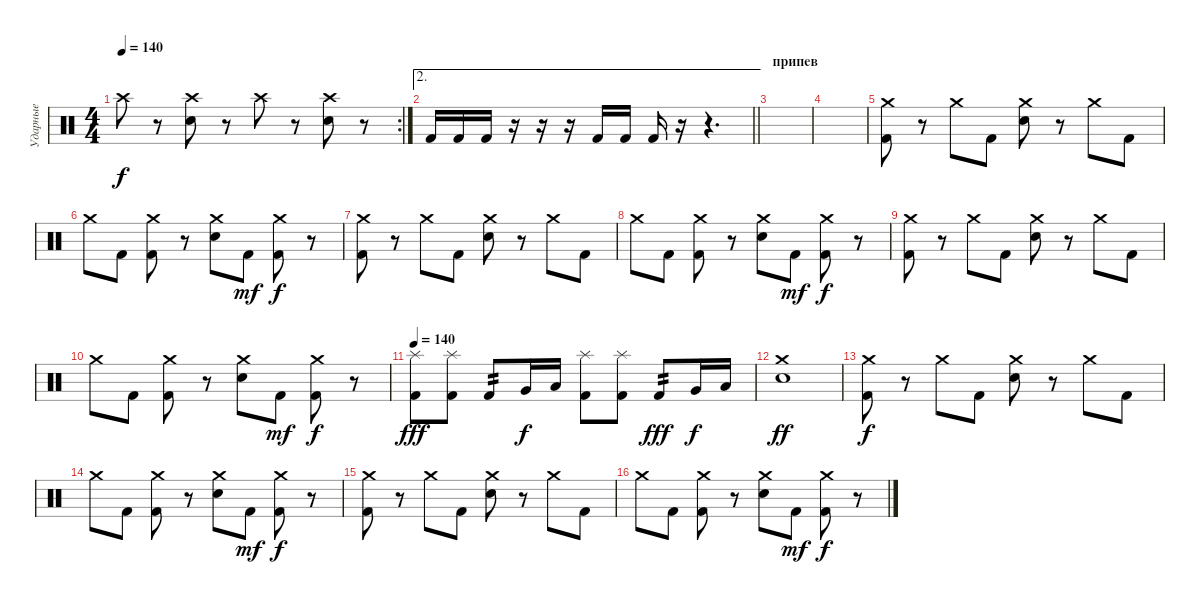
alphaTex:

\track ("Ударные" "Ударные") {instrument percussion}
\staff {score}
\articulation defaults
\rc 2
\ts (4 4)
\tempo 140
\clef neutral
\ks c "Crash high (hit)".8{dy f}
r.8 ("Crash high (hit)" "Electric Snare (hit)").8 r.8 "Crash high (hit)".8 r.8 ("Crash high (hit)" "Electric Snare (hit)").8 r.8 |
\ae 2
\barLineRight lightlight "Kick (hit) 2".16 "Kick (hit) 2".16 "Kick (hit) 2".16
r.16 r.16 r.16 "Kick (hit) 2".16 "Kick (hit) 2".16 "Kick (hit) 2".16 r.16 r.4{d} |
\section ("" "припев")
|
|
("Crash medium (hit)" "Kick (hit) 2").8 r.8 "Crash medium (hit)".8 "Kick (hit) 2".8 ("Crash medium (hit)" "Snare (hit) 2").8 r.8 "Crash medium (hit)".8 "Kick (hit) 2".8 |
"Crash medium (hit)".8 "Kick (hit) 2".8 ("Crash medium (hit)" "Kick (hit) 2").8 r.8 ("Crash medium (hit)" "Snare (hit) 2").8 "Kick (hit) 2".8{dy mf} ("Crash medium (hit)" "Kick (hit) 2").8{dy f} r.8 |
("Crash medium (hit)" "Kick (hit) 2").8 r.8 "Crash medium (hit)".8 "Kick (hit) 2".8 ("Crash medium (hit)" "Snare (hit) 2").8 r.8 "Crash medium (hit)".8 "Kick (hit) 2".8 |
"Crash medium (hit)".8 "Kick (hit) 2".8 ("Crash medium (hit)" "Kick (hit) 2").8 r.8 ("Crash medium (hit)" "Snare (hit) 2").8 "Kick (hit) 2".8{dy mf} ("Crash medium (hit)" "Kick (hit) 2").8{dy f} r.8 |
("Crash medium (hit)" "Kick (hit) 2").8 r.8 "Crash medium (hit)".8 "Kick (hit) 2".8 ("Crash medium (hit)" "Snare (hit) 2").8 r.8 "Crash medium (hit)".8 "Kick (hit) 2".8 |
"Crash medium (hit)".8 "Kick (hit) 2".8 ("Crash medium (hit)" "Kick (hit) 2").8 r.8 ("Crash medium (hit)" "Snare (hit) 2").8 "Kick (hit) 2".8{dy mf} ("Crash medium (hit)" "Kick (hit) 2").8{dy f} r.8 |
\tempo 140
("Splash (hit)" "Kick (hit) 2").8{dy fff} ("Splash (hit)" "Kick (hit) 2").8 "Kick (hit) 2".8{tp 2} "Very Low Tom (hit)".16{dy f} "Low Floor Tom (hit)".16 ("Splash (hit)" "Kick (hit) 2").8 ("Splash (hit)" "Kick (hit) 2").8 "Kick (hit) 2".8{tp 2 dy fff} "Very Low Tom (hit)".16{dy f} "Low Floor Tom (hit)".16 |
("Crash medium (hit)" "Snare (hit) 2").1{dy ff} |
("Crash medium (hit)" "Kick (hit) 2").8{dy f} r.8 "Crash medium (hit)".8 "Kick (hit) 2".8 ("Crash medium (hit)" "Snare (hit) 2").8 r.8 "Crash medium (hit)".8 "Kick (hit) 2".8 |
"Crash medium (hit)".8 "Kick (hit) 2".8 ("Crash medium (hit)" "Kick (hit) 2").8 r.8 ("Crash medium (hit)" "Snare (hit) 2").8 "Kick (hit) 2".8{dy mf} ("Crash medium (hit)" "Kick (hit) 2").8{dy f} r.8 |
("Crash medium (hit)" "Kick (hit) 2").8 r.8 "Crash medium (hit)".8 "Kick (hit) 2".8 ("Crash medium (hit)" "Snare (hit) 2").8 r.8 "Crash medium (hit)".8 "Kick (hit) 2".8 |
"Crash medium (hit)".8 "Kick (hit) 2".8 ("Crash medium (hit)" "Kick (hit) 2").8 r.8 ("Crash medium (hit)" "Snare (hit) 2").8 "Kick (hit) 2".8{dy mf} ("Crash medium (hit)" "Kick (hit) 2").8{dy f} r.8
